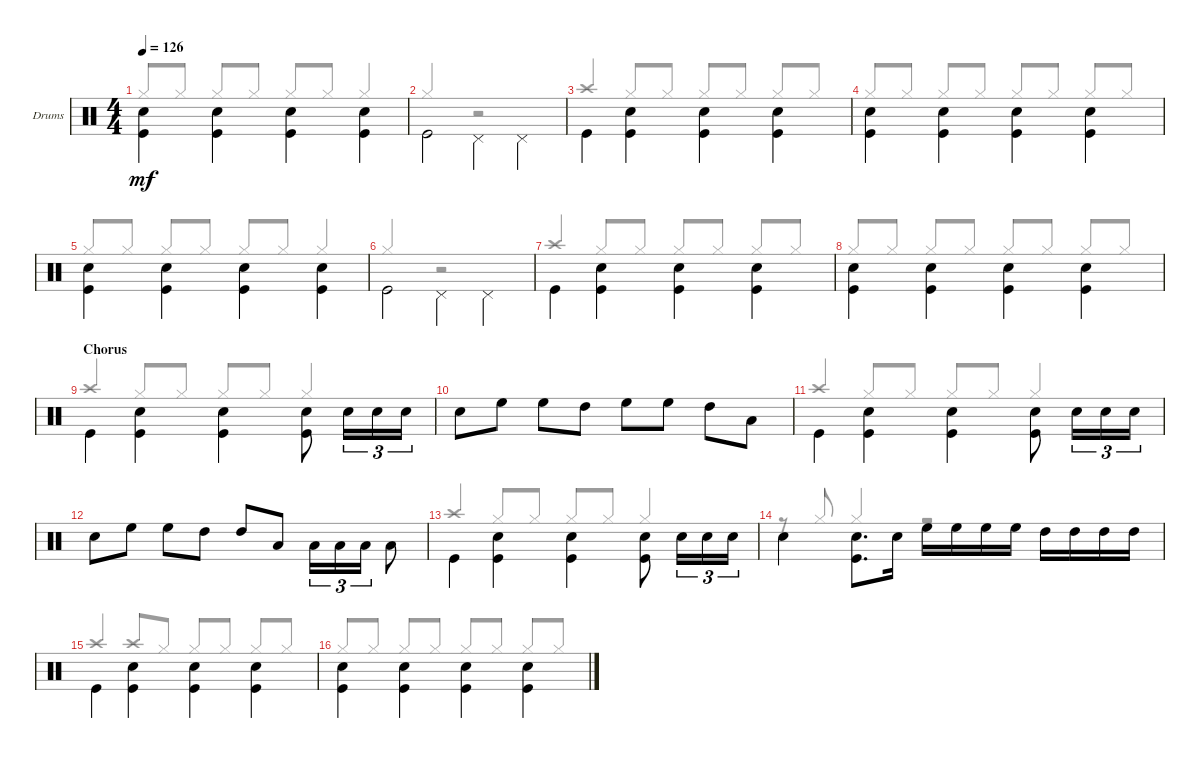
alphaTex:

\defaultSystemsLayout 4
\bracketExtendMode groupsimilarinstruments
\firstSystemTrackNameOrientation horizontal
\otherSystemsTrackNameOrientation horizontal
\track ("PETER CRISS" "Drums") {instrument percussion}
\staff {score}
\articulation defaults
\voice
\ts (4 4)
\tempo 126
\clef neutral
\ks c
("Kick (hit)" "Snare (hit) 2").4{dy mf beam invert} ("Kick (hit)" "Snare (hit) 2").4{beam invert} ("Kick (hit)" "Snare (hit) 2").4{beam invert} ("Kick (hit)" "Snare (hit) 2").4{beam invert} |
"Kick (hit)".2{beam invert} "Pedal Hi-Hat (hit)".4{beam invert} "Pedal Hi-Hat (hit)".4{beam invert} |
"Kick (hit)".4{beam invert} ("Kick (hit)" "Snare (hit) 2").4{beam invert} ("Kick (hit)" "Snare (hit) 2").4{beam invert} ("Kick (hit)" "Snare (hit) 2").4{beam invert} |
("Kick (hit)" "Snare (hit) 2").4{beam invert} ("Kick (hit)" "Snare (hit) 2").4{beam invert} ("Kick (hit)" "Snare (hit) 2").4{beam invert} ("Kick (hit)" "Snare (hit) 2").4{beam invert} |
("Kick (hit)" "Snare (hit) 2").4{beam invert} ("Kick (hit)" "Snare (hit) 2").4{beam invert} ("Kick (hit)" "Snare (hit) 2").4{beam invert} ("Kick (hit)" "Snare (hit) 2").4{beam invert} |
"Kick (hit)".2{beam invert} "Pedal Hi-Hat (hit)".4{beam invert} "Pedal Hi-Hat (hit)".4{beam invert} |
"Kick (hit)".4{beam invert} ("Kick (hit)" "Snare (hit) 2").4{beam invert} ("Kick (hit)" "Snare (hit) 2").4{beam invert} ("Kick (hit)" "Snare (hit) 2").4{beam invert} |
\scale
0.328105 ("Kick (hit)" "Snare (hit) 2").4{beam invert} ("Kick (hit)" "Snare (hit) 2").4{beam invert} ("Kick (hit)" "Snare (hit) 2").4{beam invert} ("Kick (hit)" "Snare (hit) 2").4{beam invert} |
\section ("" "Chorus")
\scale
0.323084 "Kick (hit)".4{beam invert} ("Kick (hit)" "Snare (hit) 2").4{beam invert} ("Kick (hit)" "Snare (hit) 2").4{beam invert} ("Kick (hit)" "Snare (hit) 2").8{beam invert} "Snare (hit) 2".16{tu (3 2) beam invert} "Snare (hit) 2".16{tu (3 2)} "Snare (hit) 2".16{tu (3 2)} |
\scale
0.34774 "Snare (hit) 2".8 "High Floor Tom (hit)".8 "High Floor Tom (hit)".8 "High Tom (hit)".8 "High Floor Tom (hit)".8 "High Floor Tom (hit)".8 "High Tom (hit)".8 "Low Tom (hit)".8 |
"Kick (hit)".4{beam invert} ("Kick (hit)" "Snare (hit) 2").4{beam invert} ("Kick (hit)" "Snare (hit) 2").4{beam invert} ("Kick (hit)" "Snare (hit) 2").8{beam invert} "Snare (hit) 2".16{tu (3 2) beam invert} "Snare (hit) 2".16{tu (3 2)} "Snare (hit) 2".16{tu (3 2)} |
"Snare (hit) 2".8 "High Floor Tom (hit)".8 "High Floor Tom (hit)".8 "High Tom (hit)".8 "High Tom (hit)".8 "Low Tom (hit)".8 "Low Tom (hit)".16{tu (3 2) beam invert} "Low Tom (hit)".16{tu (3 2)} "Low Tom (hit)".16{tu (3 2)} "Low Tom (hit)".8{beam invert} |
"Kick (hit)".4{beam invert} ("Kick (hit)" "Snare (hit) 2").4{beam invert} ("Kick (hit)" "Snare (hit) 2").4{beam invert} ("Kick (hit)" "Snare (hit) 2").8{beam invert} "Snare (hit) 2".16{tu (3 2) beam invert} "Snare (hit) 2".16{tu (3 2)} "Snare (hit) 2".16{tu (3 2)} |
"Snare (hit) 2".4{beam invert} ("Snare (hit) 2" "Kick (hit)").8{d beam invert} "Snare (hit) 2".16 "High Floor Tom (hit)".16{beam invert} "High Floor Tom (hit)".16 "High Floor Tom (hit)".16 "High Floor Tom (hit)".16 "High Tom (hit)".16{beam invert} "High Tom (hit)".16 "High Tom (hit)".16 "High Tom (hit)".16 |
"Kick (hit)".4{beam invert} ("Kick (hit)" "Snare (hit) 2").4{beam invert} ("Kick (hit)" "Snare (hit) 2").4{beam invert} ("Kick (hit)" "Snare (hit) 2").4{beam invert} |
("Kick (hit)" "Snare (hit) 2").4{beam invert} ("Kick (hit)" "Snare (hit) 2").4{beam invert} ("Kick (hit)" "Snare (hit) 2").4{beam invert} ("Kick (hit)" "Snare (hit) 2").4{beam invert}
\voice
\clef neutral
\ottava regular
\simile none
\ks c "Hi-Hat (closed)".8{dy mf beam invert} "Hi-Hat (closed)".8 "Hi-Hat (closed)".8{beam invert} "Hi-Hat (closed)".8 "Hi-Hat (closed)".8{beam invert} "Hi-Hat (closed)".8 "Hi-Hat (closed)".4{beam invert}
|
"Hi-Hat (closed)".2{beam invert} r.2 |
"Crash high (hit)".4{beam invert} "Hi-Hat (closed)".8{beam invert} "Hi-Hat (closed)".8 "Hi-Hat (closed)".8{beam invert} "Hi-Hat (closed)".8 "Hi-Hat (closed)".8{beam invert} "Hi-Hat (closed)".8 |
"Hi-Hat (closed)".8{beam invert} "Hi-Hat (closed)".8 "Hi-Hat (closed)".8{beam invert} "Hi-Hat (closed)".8 "Hi-Hat (closed)".8{beam invert} "Hi-Hat (closed)".8 "Hi-Hat (closed)".8{beam invert} "Hi-Hat (closed)".8 |
"Hi-Hat (closed)".8{beam invert} "Hi-Hat (closed)".8 "Hi-Hat (closed)".8{beam invert} "Hi-Hat (closed)".8 "Hi-Hat (closed)".8{beam invert} "Hi-Hat (closed)".8 "Hi-Hat (closed)".4{beam invert} |
"Hi-Hat (closed)".2{beam invert} r.2 |
"Crash high (hit)".4{beam invert} "Hi-Hat (closed)".8{beam invert} "Hi-Hat (closed)".8 "Hi-Hat (closed)".8{beam invert} "Hi-Hat (closed)".8 "Hi-Hat (closed)".8{beam invert} "Hi-Hat (closed)".8 |
\scale
0.328105 "Hi-Hat (closed)".8{beam invert} "Hi-Hat (closed)".8 "Hi-Hat (closed)".8{beam invert} "Hi-Hat (closed)".8 "Hi-Hat (closed)".8{beam invert} "Hi-Hat (closed)".8 "Hi-Hat (closed)".8{beam invert} "Hi-Hat (closed)".8 |
\scale
0.323084 "Crash high (hit)".4{beam invert} "Hi-Hat (closed)".8{beam invert} "Hi-Hat (closed)".8 "Hi-Hat (closed)".8{beam invert} "Hi-Hat (closed)".8 "Hi-Hat (closed)".4{beam invert} |
\scale
0.34774 |
"Crash high (hit)".4{beam invert} "Hi-Hat (closed)".8{beam invert} "Hi-Hat (closed)".8 "Hi-Hat (closed)".8{beam invert} "Hi-Hat (closed)".8 "Hi-Hat (closed)".4{beam invert} |
|
"Crash high (hit)".4{beam invert} "Hi-Hat (closed)".8{beam invert} "Hi-Hat (closed)".8 "Hi-Hat (closed)".8{beam invert} "Hi-Hat (closed)".8 "Hi-Hat (closed)".4{beam invert} |
r.8 "Hi-Hat (closed)".8{beam invert} "Hi-Hat (closed)".4{beam invert} r.2 |
"Crash high (hit)".4{beam invert} "Crash high (hit)".8 "Hi-Hat (closed)".8{beam invert} "Hi-Hat (closed)".8 "Hi-Hat (closed)".8{beam invert} "Hi-Hat (closed)".8 "Hi-Hat (closed)".8{beam invert} |
"Hi-Hat (closed)".8{beam invert} "Hi-Hat (closed)".8 "Hi-Hat (closed)".8{beam invert} "Hi-Hat (closed)".8 "Hi-Hat (closed)".8{beam invert} "Hi-Hat (closed)".8 "Hi-Hat (closed)".8{beam invert} "Hi-Hat (closed)".8
